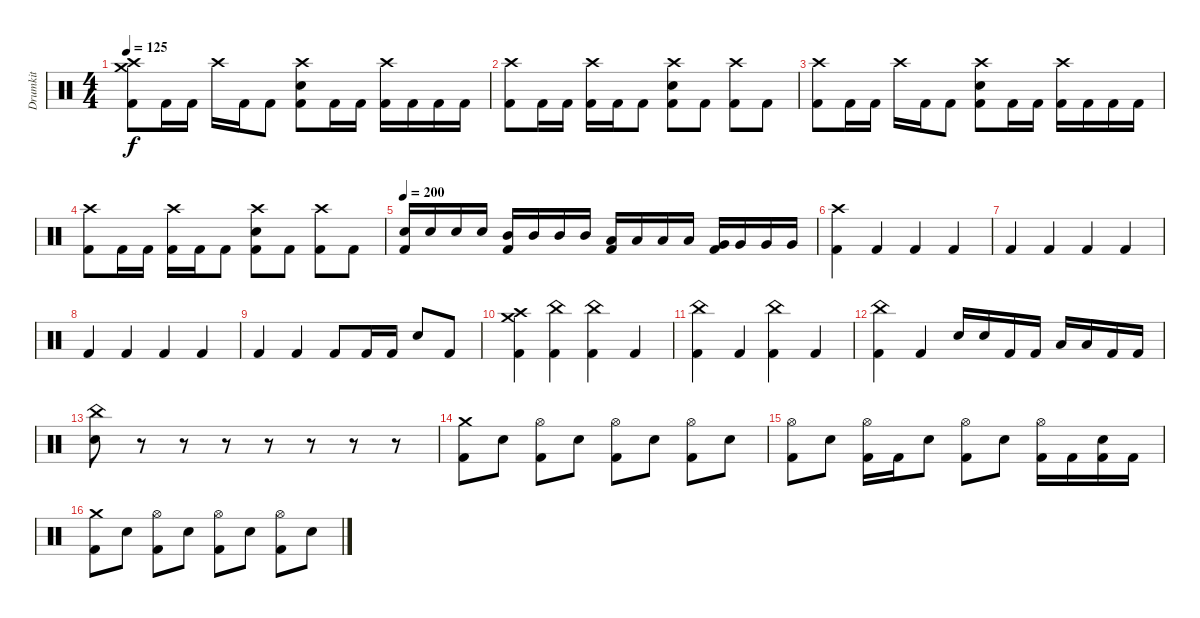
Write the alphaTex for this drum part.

\track ("Drumkit" "Drumkit") {instrument percussion}
\staff {score}
\articulation defaults
\ts (4 4)
\tempo 125
\clef neutral
\ks c
("Crash medium (hit)" "Crash high (hit)" "Kick (hit) 2").8{dy f} "Kick (hit) 2".16 "Kick (hit) 2".16 "Crash high (hit)".16 "Kick (hit) 2".16 "Kick (hit) 2".8 ("Crash high (hit)" "Electric Snare (hit)" "Kick (hit) 2").8 "Kick (hit) 2".16 "Kick (hit) 2".16 ("Crash high (hit)" "Kick (hit) 2").16 "Kick (hit) 2".16 "Kick (hit) 2".16 "Kick (hit) 2".16 |
("Crash high (hit)" "Kick (hit) 2").8 "Kick (hit) 2".16 "Kick (hit) 2".16 ("Crash high (hit)" "Kick (hit) 2").16 "Kick (hit) 2".16 "Kick (hit) 2".8 ("Crash high (hit)" "Electric Snare (hit)" "Kick (hit) 2").8 "Kick (hit) 2".8 ("Crash high (hit)" "Kick (hit) 2").8 "Kick (hit) 2".8 |
("Crash high (hit)" "Kick (hit) 2").8 "Kick (hit) 2".16 "Kick (hit) 2".16 "Crash high (hit)".16 "Kick (hit) 2".16 "Kick (hit) 2".8 ("Crash high (hit)" "Electric Snare (hit)" "Kick (hit) 2").8 "Kick (hit) 2".16 "Kick (hit) 2".16 ("Crash high (hit)" "Kick (hit) 2").16 "Kick (hit) 2".16 "Kick (hit) 2".16 "Kick (hit) 2".16 |
("Crash high (hit)" "Kick (hit) 2").8 "Kick (hit) 2".16 "Kick (hit) 2".16 ("Crash high (hit)" "Kick (hit) 2").16 "Kick (hit) 2".16 "Kick (hit) 2".8 ("Crash high (hit)" "Electric Snare (hit)" "Kick (hit) 2").8 "Kick (hit) 2".8 ("Crash high (hit)" "Kick (hit) 2").8 "Kick (hit) 2".8 |
\tempo 200
("Electric Snare (hit)" "Kick (hit) 2").16 "Electric Snare (hit)".16 "Electric Snare (hit)".16 "Electric Snare (hit)".16 ("Mid Tom (hit)" "Kick (hit) 2").16 "Mid Tom (hit)".16 "Mid Tom (hit)".16 "Mid Tom (hit)".16 ("Low Tom (hit)" "Kick (hit) 2").16 "Low Tom (hit)".16 "Low Tom (hit)".16 "Low Tom (hit)".16 ("Very Low Tom (hit)" "Kick (hit) 2").16 "Very Low Tom (hit)".16 "Very Low Tom (hit)".16 "Very Low Tom (hit)".16 |
("Crash high (hit)" "Kick (hit) 2").4 "Kick (hit) 2".4 "Kick (hit) 2".4 "Kick (hit) 2".4 |
"Kick (hit) 2".4 "Kick (hit) 2".4 "Kick (hit) 2".4 "Kick (hit) 2".4 |
"Kick (hit) 2".4 "Kick (hit) 2".4 "Kick (hit) 2".4 "Kick (hit) 2".4 |
"Kick (hit) 2".4 "Kick (hit) 2".4 "Kick (hit) 2".8 "Kick (hit) 2".16 "Kick (hit) 2".16 "Electric Snare (hit)".8 "Kick (hit) 2".8 |
("Crash medium (hit)" "Crash high (hit)" "Kick (hit) 2").4 ("China (hit)" "Kick (hit) 2").4 ("China (hit)" "Kick (hit) 2").4 "Kick (hit) 2".4 |
("China (hit)" "Kick (hit) 2").4 "Kick (hit) 2".4 ("China (hit)" "Kick (hit) 2").4 "Kick (hit) 2".4 |
("China (hit)" "Kick (hit) 2").4 "Kick (hit) 2".4 "Electric Snare (hit)".16 "Electric Snare (hit)".16 "Kick (hit) 2".16 "Kick (hit) 2".16 "Low Tom (hit)".16 "Low Tom (hit)".16 "Kick (hit) 2".16 "Kick (hit) 2".16 |
("China (hit)" "Electric Snare (hit)").8 r.8 r.8 r.8 r.8 r.8 r.8 r.8 |
("Crash medium (hit)" "Kick (hit) 2").8 "Electric Snare (hit)".8 ("Hi-Hat (open)" "Kick (hit) 2").8 "Electric Snare (hit)".8 ("Hi-Hat (open)" "Kick (hit) 2").8 "Electric Snare (hit)".8 ("Hi-Hat (open)" "Kick (hit) 2").8 "Electric Snare (hit)".8 |
("Hi-Hat (open)" "Kick (hit) 2").8 "Electric Snare (hit)".8 ("Hi-Hat (open)" "Kick (hit) 2").16 "Kick (hit) 2".16 "Electric Snare (hit)".8 ("Hi-Hat (open)" "Kick (hit) 2").8 "Electric Snare (hit)".8 ("Hi-Hat (open)" "Kick (hit) 2").16 "Kick (hit) 2".16 ("Electric Snare (hit)" "Kick (hit) 2").16 "Kick (hit) 2".16 |
("Crash medium (hit)" "Kick (hit) 2").8 "Electric Snare (hit)".8 ("Hi-Hat (open)" "Kick (hit) 2").8 "Electric Snare (hit)".8 ("Hi-Hat (open)" "Kick (hit) 2").8 "Electric Snare (hit)".8 ("Hi-Hat (open)" "Kick (hit) 2").8 "Electric Snare (hit)".8
